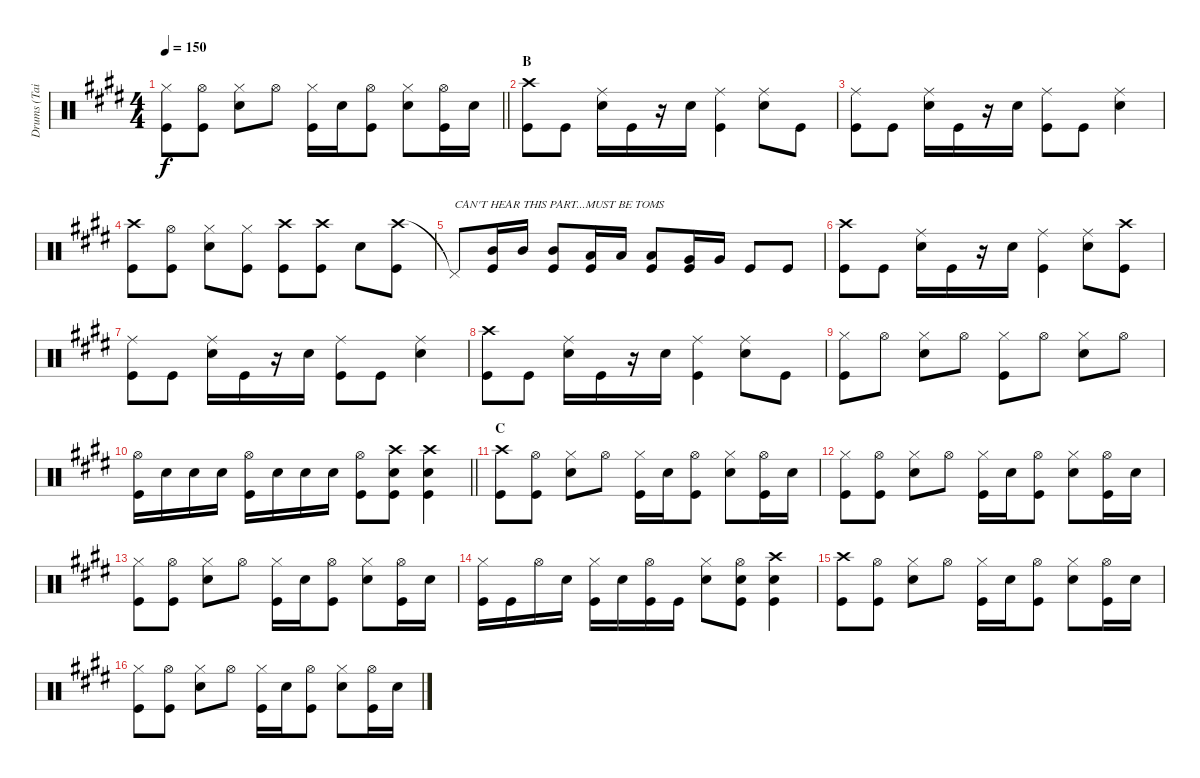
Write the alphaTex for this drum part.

\track ("Drums (Tainaka Ritsu)" "Drums (Tai") {instrument percussion}
\staff {score}
\articulation defaults
\ts (4 4)
\tempo 150
\clef neutral
\barLineRight lightlight
\ks e
("Hi-Hat (closed)" "Kick (hit)").8{dy f} ("Hi-Hat (open)" "Kick (hit)").8 ("Hi-Hat (closed)" "Snare (hit) 2").8 "Hi-Hat (open)".8 ("Hi-Hat (closed)" "Kick (hit)").16 "Snare (hit) 2".16 ("Hi-Hat (open)" "Kick (hit)").8 ("Hi-Hat (closed)" "Snare (hit) 2").8 ("Hi-Hat (open)" "Kick (hit)").16 "Snare (hit) 2".16 |
\section ("" "B")
("Crash high (hit)" "Kick (hit)").8 "Kick (hit)".8 ("Ride (middle)" "Snare (hit) 2").16 "Kick (hit)".16 r.16 "Snare (hit) 2".16 ("Ride (middle)" "Kick (hit)").4 ("Ride (middle)" "Snare (hit) 2").8 "Kick (hit)".8 |
("Ride (middle)" "Kick (hit)").8 "Kick (hit)".8 ("Ride (middle)" "Snare (hit) 2").16 "Kick (hit)".16 r.16 "Snare (hit) 2".16 ("Ride (middle)" "Kick (hit)").8 "Kick (hit)".8 ("Ride (middle)" "Snare (hit) 2").4 |
("Crash high (hit)" "Kick (hit)").8 ("Hi-Hat (open)" "Kick (hit)").8 ("Hi-Hat (closed)" "Snare (hit) 2").8 ("Hi-Hat (closed)" "Kick (hit)").8 ("Crash high (hit)" "Kick (hit)").8 ("Crash high (hit)" "Kick (hit)").8 "Snare (hit) 2".8 ("Crash high (hit)" "Kick (hit)").8 |
"Pedal Hi-Hat (hit)"{t}.8{txt "CAN'T HEAR THIS PART...MUST BE TOMS"} ("Mid Tom (hit)" "Kick (hit)").16 "Mid Tom (hit)".16 ("Mid Tom (hit)" "Kick (hit)").8 ("Low Tom (hit)" "Kick (hit)").16 "Low Tom (hit)".16 ("Low Tom (hit)" "Kick (hit)").8 ("Very Low Tom (hit)" "Kick (hit)").16 "Very Low Tom (hit)".16 "Kick (hit)".8 "Kick (hit)".8 |
("Crash high (hit)" "Kick (hit)").8 "Kick (hit)".8 ("Ride (middle)" "Snare (hit) 2").16 "Kick (hit)".16 r.16 "Snare (hit) 2".16 ("Ride (middle)" "Kick (hit)").4 ("Ride (middle)" "Snare (hit) 2").8 ("Crash high (hit)" "Kick (hit)").8 |
("Ride (middle)" "Kick (hit)").8 "Kick (hit)".8 ("Ride (middle)" "Snare (hit) 2").16 "Kick (hit)".16 r.16 "Snare (hit) 2".16 ("Ride (middle)" "Kick (hit)").8 "Kick (hit)".8 ("Ride (middle)" "Snare (hit) 2").4 |
("Crash high (hit)" "Kick (hit)").8 "Kick (hit)".8 ("Ride (middle)" "Snare (hit) 2").16 "Kick (hit)".16 r.16 "Snare (hit) 2".16 ("Ride (middle)" "Kick (hit)").4 ("Ride (middle)" "Snare (hit) 2").8 "Kick (hit)".8 |
("Hi-Hat (closed)" "Kick (hit)").8 "Hi-Hat (open)".8 ("Hi-Hat (closed)" "Snare (hit) 2").8 "Hi-Hat (open)".8 ("Hi-Hat (closed)" "Kick (hit)").8 "Hi-Hat (open)".8 ("Hi-Hat (closed)" "Snare (hit) 2").8 "Hi-Hat (open)".8 |
\barLineRight lightlight
("Hi-Hat (open)" "Kick (hit)").16 "Snare (hit) 2".16 "Snare (hit) 2".16 "Snare (hit) 2".16 ("Hi-Hat (open)" "Kick (hit)").16 "Snare (hit) 2".16 "Snare (hit) 2".16 "Snare (hit) 2".16 ("Hi-Hat (open)" "Kick (hit)").8 ("Crash high (hit)" "Snare (hit) 2" "Kick (hit)").8 ("Crash high (hit)" "Snare (hit) 2" "Kick (hit)").4 |
\section ("" "C")
("Crash high (hit)" "Kick (hit)").8 ("Hi-Hat (open)" "Kick (hit)").8 ("Hi-Hat (closed)" "Snare (hit) 2").8 "Hi-Hat (open)".8 ("Hi-Hat (closed)" "Kick (hit)").16 "Snare (hit) 2".16 ("Hi-Hat (open)" "Kick (hit)").8 ("Hi-Hat (closed)" "Snare (hit) 2").8 ("Hi-Hat (open)" "Kick (hit)").16 "Snare (hit) 2".16 |
("Hi-Hat (closed)" "Kick (hit)").8 ("Hi-Hat (open)" "Kick (hit)").8 ("Hi-Hat (closed)" "Snare (hit) 2").8 "Hi-Hat (open)".8 ("Hi-Hat (closed)" "Kick (hit)").16 "Snare (hit) 2".16 ("Hi-Hat (open)" "Kick (hit)").8 ("Hi-Hat (closed)" "Snare (hit) 2").8 ("Hi-Hat (open)" "Kick (hit)").16 "Snare (hit) 2".16 |
("Hi-Hat (closed)" "Kick (hit)").8 ("Hi-Hat (open)" "Kick (hit)").8 ("Hi-Hat (closed)" "Snare (hit) 2").8 "Hi-Hat (open)".8 ("Hi-Hat (closed)" "Kick (hit)").16 "Snare (hit) 2".16 ("Hi-Hat (open)" "Kick (hit)").8 ("Hi-Hat (closed)" "Snare (hit) 2").8 ("Hi-Hat (open)" "Kick (hit)").16 "Snare (hit) 2".16 |
("Hi-Hat (closed)" "Kick (hit)").16 "Kick (hit)".16 "Hi-Hat (open)".16 "Snare (hit) 2".16 ("Hi-Hat (closed)" "Kick (hit)").16 "Snare (hit) 2".16 ("Hi-Hat (open)" "Kick (hit)").16 "Kick (hit)".16 ("Hi-Hat (closed)" "Snare (hit) 2").8 ("Hi-Hat (open)" "Snare (hit) 2" "Kick (hit)").8 ("Crash high (hit)" "Snare (hit) 2" "Kick (hit)").4 |
("Crash high (hit)" "Kick (hit)").8 ("Hi-Hat (open)" "Kick (hit)").8 ("Hi-Hat (closed)" "Snare (hit) 2").8 "Hi-Hat (open)".8 ("Hi-Hat (closed)" "Kick (hit)").16 "Snare (hit) 2".16 ("Hi-Hat (open)" "Kick (hit)").8 ("Hi-Hat (closed)" "Snare (hit) 2").8 ("Hi-Hat (open)" "Kick (hit)").16 "Snare (hit) 2".16 |
("Hi-Hat (closed)" "Kick (hit)").8 ("Hi-Hat (open)" "Kick (hit)").8 ("Hi-Hat (closed)" "Snare (hit) 2").8 "Hi-Hat (open)".8 ("Hi-Hat (closed)" "Kick (hit)").16 "Snare (hit) 2".16 ("Hi-Hat (open)" "Kick (hit)").8 ("Hi-Hat (closed)" "Snare (hit) 2").8 ("Hi-Hat (open)" "Kick (hit)").16 "Snare (hit) 2".16
